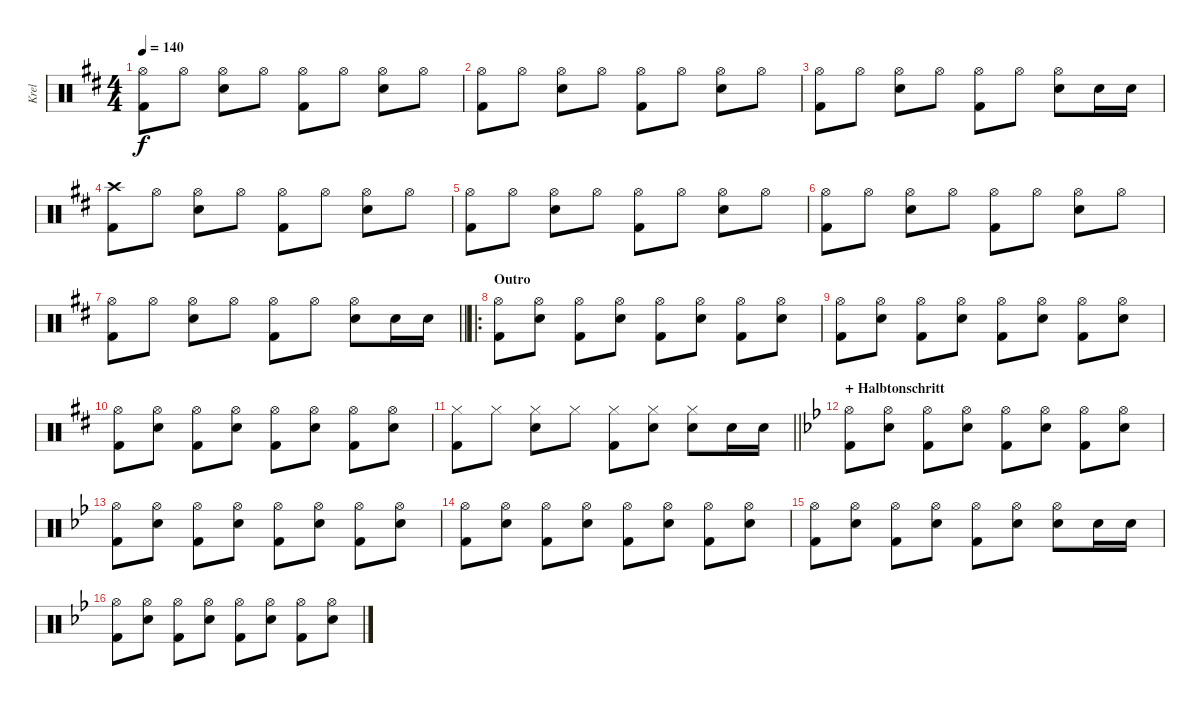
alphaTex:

\track ("Krel" "Krel") {instrument percussion}
\staff {score}
\articulation defaults
\ts (4 4)
\tempo 140
\clef neutral
\ks d
("Hi-Hat (open)" "Kick (hit) 2").8{dy f} "Hi-Hat (open)".8 ("Hi-Hat (open)" "Snare (hit) 2").8 "Hi-Hat (open)".8 ("Hi-Hat (open)" "Kick (hit) 2").8 "Hi-Hat (open)".8 ("Hi-Hat (open)" "Snare (hit) 2").8 "Hi-Hat (open)".8 |
("Hi-Hat (open)" "Kick (hit) 2").8 "Hi-Hat (open)".8 ("Hi-Hat (open)" "Snare (hit) 2").8 "Hi-Hat (open)".8 ("Hi-Hat (open)" "Kick (hit) 2").8 "Hi-Hat (open)".8 ("Hi-Hat (open)" "Snare (hit) 2").8 "Hi-Hat (open)".8 |
("Hi-Hat (open)" "Kick (hit) 2").8 "Hi-Hat (open)".8 ("Hi-Hat (open)" "Snare (hit) 2").8 "Hi-Hat (open)".8 ("Hi-Hat (open)" "Kick (hit) 2").8 "Hi-Hat (open)".8 ("Hi-Hat (open)" "Snare (hit) 2").8 "Snare (hit) 2".16 "Snare (hit) 2".16 |
("Crash high (hit)" "Kick (hit) 2").8 "Hi-Hat (open)".8 ("Hi-Hat (open)" "Snare (hit) 2").8 "Hi-Hat (open)".8 ("Hi-Hat (open)" "Kick (hit) 2").8 "Hi-Hat (open)".8 ("Hi-Hat (open)" "Snare (hit) 2").8 "Hi-Hat (open)".8 |
("Hi-Hat (open)" "Kick (hit) 2").8 "Hi-Hat (open)".8 ("Hi-Hat (open)" "Snare (hit) 2").8 "Hi-Hat (open)".8 ("Hi-Hat (open)" "Kick (hit) 2").8 "Hi-Hat (open)".8 ("Hi-Hat (open)" "Snare (hit) 2").8 "Hi-Hat (open)".8 |
("Hi-Hat (open)" "Kick (hit) 2").8 "Hi-Hat (open)".8 ("Hi-Hat (open)" "Snare (hit) 2").8 "Hi-Hat (open)".8 ("Hi-Hat (open)" "Kick (hit) 2").8 "Hi-Hat (open)".8 ("Hi-Hat (open)" "Snare (hit) 2").8 "Hi-Hat (open)".8 |
\barLineRight lightlight
("Hi-Hat (open)" "Kick (hit) 2").8 "Hi-Hat (open)".8 ("Hi-Hat (open)" "Snare (hit) 2").8 "Hi-Hat (open)".8 ("Hi-Hat (open)" "Kick (hit) 2").8 "Hi-Hat (open)".8 ("Hi-Hat (open)" "Snare (hit) 2").8 "Snare (hit) 2".16 "Snare (hit) 2".16 |
\ro
\section ("" "Outro")
("Hi-Hat (open)" "Kick (hit) 2").8 ("Hi-Hat (open)" "Snare (hit) 2").8 ("Hi-Hat (open)" "Kick (hit) 2").8 ("Hi-Hat (open)" "Snare (hit) 2").8 ("Hi-Hat (open)" "Kick (hit) 2").8 ("Hi-Hat (open)" "Snare (hit) 2").8 ("Hi-Hat (open)" "Kick (hit) 2").8 ("Hi-Hat (open)" "Snare (hit) 2").8 |
("Hi-Hat (open)" "Kick (hit) 2").8 ("Hi-Hat (open)" "Snare (hit) 2").8 ("Hi-Hat (open)" "Kick (hit) 2").8 ("Hi-Hat (open)" "Snare (hit) 2").8 ("Hi-Hat (open)" "Kick (hit) 2").8 ("Hi-Hat (open)" "Snare (hit) 2").8 ("Hi-Hat (open)" "Kick (hit) 2").8 ("Hi-Hat (open)" "Snare (hit) 2").8 |
("Hi-Hat (open)" "Kick (hit) 2").8 ("Hi-Hat (open)" "Snare (hit) 2").8 ("Hi-Hat (open)" "Kick (hit) 2").8 ("Hi-Hat (open)" "Snare (hit) 2").8 ("Hi-Hat (open)" "Kick (hit) 2").8 ("Hi-Hat (open)" "Snare (hit) 2").8 ("Hi-Hat (open)" "Kick (hit) 2").8 ("Hi-Hat (open)" "Snare (hit) 2").8 |
\barLineRight lightlight
("Hi-Hat (closed)" "Kick (hit) 2").8 "Hi-Hat (closed)".8 ("Hi-Hat (closed)" "Snare (hit) 2").8 "Hi-Hat (closed)".8 ("Hi-Hat (closed)" "Kick (hit) 2").8 ("Hi-Hat (closed)" "Snare (hit) 2").8 ("Hi-Hat (closed)" "Snare (hit) 2").8 "Snare (hit) 2".16 "Snare (hit) 2".16 |
\section ("" "+ Halbtonschritt")
\ks bb
("Hi-Hat (open)" "Kick (hit) 2").8 ("Hi-Hat (open)" "Snare (hit) 2").8 ("Hi-Hat (open)" "Kick (hit) 2").8 ("Hi-Hat (open)" "Snare (hit) 2").8 ("Hi-Hat (open)" "Kick (hit) 2").8 ("Hi-Hat (open)" "Snare (hit) 2").8 ("Hi-Hat (open)" "Kick (hit) 2").8 ("Hi-Hat (open)" "Snare (hit) 2").8 |
("Hi-Hat (open)" "Kick (hit) 2").8 ("Hi-Hat (open)" "Snare (hit) 2").8 ("Hi-Hat (open)" "Kick (hit) 2").8 ("Hi-Hat (open)" "Snare (hit) 2").8 ("Hi-Hat (open)" "Kick (hit) 2").8 ("Hi-Hat (open)" "Snare (hit) 2").8 ("Hi-Hat (open)" "Kick (hit) 2").8 ("Hi-Hat (open)" "Snare (hit) 2").8 |
("Hi-Hat (open)" "Kick (hit) 2").8 ("Hi-Hat (open)" "Snare (hit) 2").8 ("Hi-Hat (open)" "Kick (hit) 2").8 ("Hi-Hat (open)" "Snare (hit) 2").8 ("Hi-Hat (open)" "Kick (hit) 2").8 ("Hi-Hat (open)" "Snare (hit) 2").8 ("Hi-Hat (open)" "Kick (hit) 2").8 ("Hi-Hat (open)" "Snare (hit) 2").8 |
("Hi-Hat (open)" "Kick (hit) 2").8 ("Hi-Hat (open)" "Snare (hit) 2").8 ("Hi-Hat (open)" "Kick (hit) 2").8 ("Hi-Hat (open)" "Snare (hit) 2").8 ("Hi-Hat (open)" "Kick (hit) 2").8 ("Hi-Hat (open)" "Snare (hit) 2").8 ("Hi-Hat (open)" "Snare (hit) 2").8 "Snare (hit) 2".16 "Snare (hit) 2".16 |
("Hi-Hat (open)" "Kick (hit) 2").8 ("Hi-Hat (open)" "Snare (hit) 2").8 ("Hi-Hat (open)" "Kick (hit) 2").8 ("Hi-Hat (open)" "Snare (hit) 2").8 ("Hi-Hat (open)" "Kick (hit) 2").8 ("Hi-Hat (open)" "Snare (hit) 2").8 ("Hi-Hat (open)" "Kick (hit) 2").8 ("Hi-Hat (open)" "Snare (hit) 2").8
